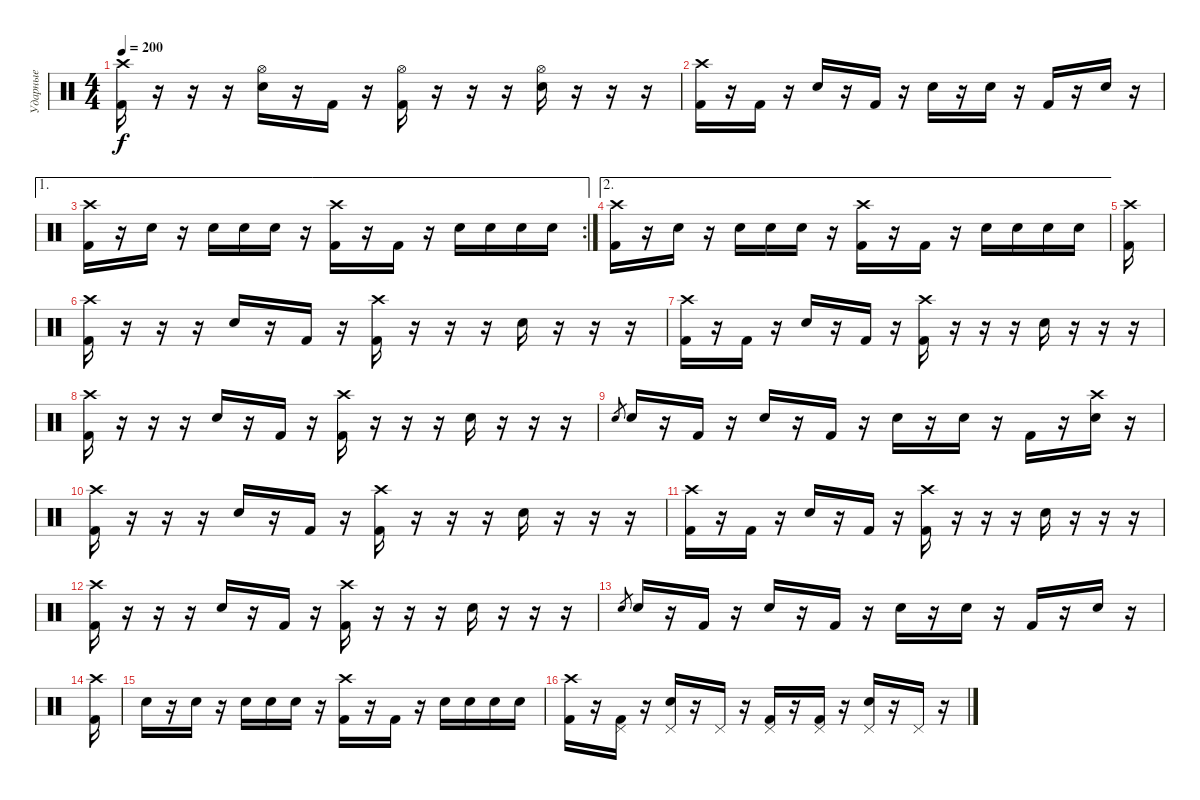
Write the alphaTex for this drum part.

\track ("Ударные" "Ударные") {solo instrument percussion}
\staff {score}
\articulation defaults
\ts (4 4)
\tempo 200
\clef neutral
\ks c
("Crash high (hit)" "Kick (hit) 2").16{dy f} r.16 r.16 r.16 ("Hi-Hat (open)" "Electric Snare (hit)").16 r.16 "Kick (hit) 2".16 r.16 ("Hi-Hat (open)" "Kick (hit) 2").16 r.16 r.16 r.16 ("Hi-Hat (open)" "Electric Snare (hit)").16 r.16 r.16 r.16 |
("Crash high (hit)" "Kick (hit) 2").16 r.16 "Kick (hit) 2".16 r.16 "Electric Snare (hit)".16 r.16 "Kick (hit) 2".16 r.16 "Electric Snare (hit)".16 r.16 "Electric Snare (hit)".16 r.16 "Kick (hit) 2".16 r.16 "Electric Snare (hit)".16 r.16 |
\ae 1
\rc 2
("Crash high (hit)" "Kick (hit) 2").16 r.16 "Electric Snare (hit)".16 r.16 "Electric Snare (hit)".16 "Electric Snare (hit)".16 "Electric Snare (hit)".16 r.16 ("Crash high (hit)" "Kick (hit) 2").16 r.16 "Kick (hit) 2".16 r.16 "Electric Snare (hit)".16 "Electric Snare (hit)".16 "Electric Snare (hit)".16 "Electric Snare (hit)".16 |
\ae 2
("Crash high (hit)" "Kick (hit) 2").16 r.16 "Electric Snare (hit)".16 r.16 "Electric Snare (hit)".16 "Electric Snare (hit)".16 "Electric Snare (hit)".16 r.16 ("Crash high (hit)" "Kick (hit) 2").16 r.16 "Kick (hit) 2".16 r.16 "Electric Snare (hit)".16 "Electric Snare (hit)".16 "Electric Snare (hit)".16 "Electric Snare (hit)".16 |
("Crash high (hit)" "Kick (hit) 2").16 |
("Crash high (hit)" "Kick (hit) 2").16 r.16 r.16 r.16 "Electric Snare (hit)".16 r.16 "Kick (hit) 2".16 r.16 ("Crash high (hit)" "Kick (hit) 2").16 r.16 r.16 r.16 "Electric Snare (hit)".16 r.16 r.16 r.16 |
("Crash high (hit)" "Kick (hit) 2").16 r.16 "Kick (hit) 2".16 r.16 "Electric Snare (hit)".16 r.16 "Kick (hit) 2".16 r.16 ("Crash high (hit)" "Kick (hit) 2").16 r.16 r.16 r.16 "Electric Snare (hit)".16 r.16 r.16 r.16 |
("Crash high (hit)" "Kick (hit) 2").16 r.16 r.16 r.16 "Electric Snare (hit)".16 r.16 "Kick (hit) 2".16 r.16 ("Crash high (hit)" "Kick (hit) 2").16 r.16 r.16 r.16 "Electric Snare (hit)".16 r.16 r.16 r.16 |
"Electric Snare (hit)".8{gr} "Electric Snare (hit)".16 r.16 "Kick (hit) 2".16 r.16 "Electric Snare (hit)".16 r.16 "Kick (hit) 2".16 r.16 "Electric Snare (hit)".16 r.16 "Electric Snare (hit)".16 r.16 "Kick (hit) 2".16 r.16 ("Crash high (hit)" "Electric Snare (hit)").16 r.16 |
("Crash high (hit)" "Kick (hit) 2").16 r.16 r.16 r.16 "Electric Snare (hit)".16 r.16 "Kick (hit) 2".16 r.16 ("Crash high (hit)" "Kick (hit) 2").16 r.16 r.16 r.16 "Electric Snare (hit)".16 r.16 r.16 r.16 |
("Crash high (hit)" "Kick (hit) 2").16 r.16 "Kick (hit) 2".16 r.16 "Electric Snare (hit)".16 r.16 "Kick (hit) 2".16 r.16 ("Crash high (hit)" "Kick (hit) 2").16 r.16 r.16 r.16 "Electric Snare (hit)".16 r.16 r.16 r.16 |
("Crash high (hit)" "Kick (hit) 2").16 r.16 r.16 r.16 "Electric Snare (hit)".16 r.16 "Kick (hit) 2".16 r.16 ("Crash high (hit)" "Kick (hit) 2").16 r.16 r.16 r.16 "Electric Snare (hit)".16 r.16 r.16 r.16 |
"Electric Snare (hit)".8{gr} "Electric Snare (hit)".16 r.16 "Kick (hit) 2".16 r.16 "Electric Snare (hit)".16 r.16 "Kick (hit) 2".16 r.16 "Electric Snare (hit)".16 r.16 "Electric Snare (hit)".16 r.16 "Kick (hit) 2".16 r.16 "Electric Snare (hit)".16 r.16 |
("Crash high (hit)" "Kick (hit) 2").16 |
"Electric Snare (hit)".16 r.16 "Electric Snare (hit)".16 r.16 "Electric Snare (hit)".16 "Electric Snare (hit)".16 "Electric Snare (hit)".16 r.16 ("Crash high (hit)" "Kick (hit) 2").16 r.16 "Kick (hit) 2".16 r.16 "Electric Snare (hit)".16 "Electric Snare (hit)".16 "Electric Snare (hit)".16 "Electric Snare (hit)".16 |
("Crash high (hit)" "Kick (hit) 2").16 r.16 ("Pedal Hi-Hat (hit)" "Kick (hit) 2").16 r.16 ("Pedal Hi-Hat (hit)" "Electric Snare (hit)").16 r.16 "Pedal Hi-Hat (hit)".16 r.16 ("Pedal Hi-Hat (hit)" "Kick (hit) 2").16 r.16 ("Pedal Hi-Hat (hit)" "Kick (hit) 2").16 r.16 ("Pedal Hi-Hat (hit)" "Electric Snare (hit)").16 r.16 "Pedal Hi-Hat (hit)".16 r.16
